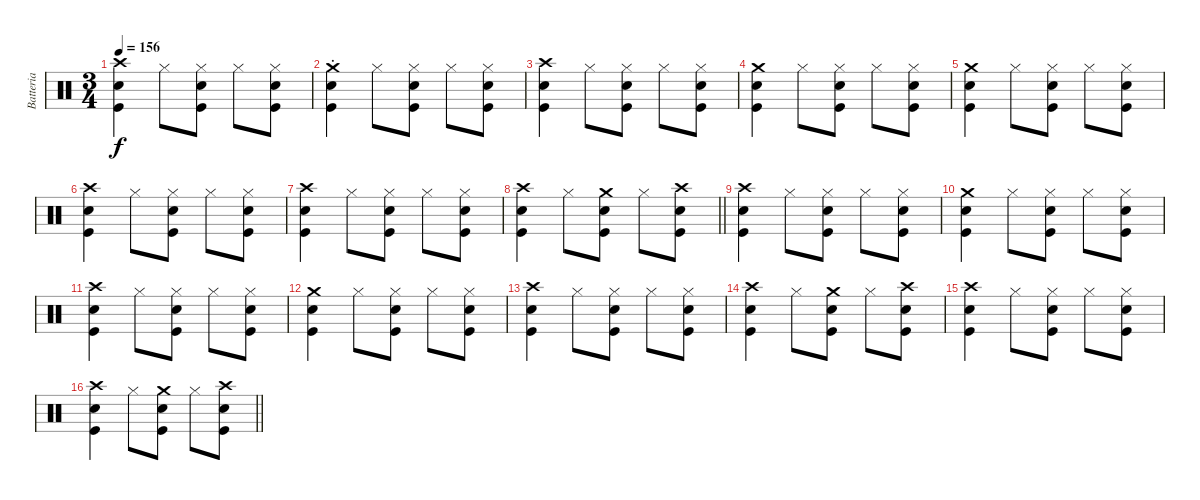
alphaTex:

\track ("Batteria" "Batteria") {instrument percussion}
\staff {score}
\articulation defaults
\ts (3 4)
\tempo 156
\clef neutral
\ks c
("Crash high (hit)" "Electric Snare (hit)" "Kick (hit)").4{dy f} "Hi-Hat (closed)".8 ("Hi-Hat (closed)" "Electric Snare (hit)" "Kick (hit)").8 "Hi-Hat (closed)".8 ("Hi-Hat (closed)" "Electric Snare (hit)" "Kick (hit)").8 |
("Crash medium (hit)"{st} "Electric Snare (hit)"{st} "Kick (hit)"{st}).4 "Hi-Hat (closed)".8 ("Hi-Hat (closed)" "Electric Snare (hit)" "Kick (hit)").8 "Hi-Hat (closed)".8 ("Hi-Hat (closed)" "Electric Snare (hit)" "Kick (hit)").8 |
("Crash high (hit)" "Electric Snare (hit)" "Kick (hit)").4 "Hi-Hat (closed)".8 ("Hi-Hat (closed)" "Electric Snare (hit)" "Kick (hit)").8 "Hi-Hat (closed)".8 ("Hi-Hat (closed)" "Electric Snare (hit)" "Kick (hit)").8 |
("Crash medium (hit)" "Electric Snare (hit)" "Kick (hit)").4 "Hi-Hat (closed)".8 ("Hi-Hat (closed)" "Electric Snare (hit)" "Kick (hit)").8 "Hi-Hat (closed)".8 ("Hi-Hat (closed)" "Electric Snare (hit)" "Kick (hit)").8 |
("Crash medium (hit)" "Electric Snare (hit)" "Kick (hit)").4 "Hi-Hat (closed)".8 ("Hi-Hat (closed)" "Electric Snare (hit)" "Kick (hit)").8 "Hi-Hat (closed)".8 ("Hi-Hat (closed)" "Electric Snare (hit)" "Kick (hit)").8 |
("Crash high (hit)" "Electric Snare (hit)" "Kick (hit)").4 "Hi-Hat (closed)".8 ("Hi-Hat (closed)" "Electric Snare (hit)" "Kick (hit)").8 "Hi-Hat (closed)".8 ("Hi-Hat (closed)" "Electric Snare (hit)" "Kick (hit)").8 |
("Crash high (hit)" "Electric Snare (hit)" "Kick (hit)").4 "Hi-Hat (closed)".8 ("Hi-Hat (closed)" "Electric Snare (hit)" "Kick (hit)").8 "Hi-Hat (closed)".8 ("Hi-Hat (closed)" "Electric Snare (hit)" "Kick (hit)").8 |
\barLineRight lightlight
("Crash high (hit)" "Electric Snare (hit)" "Kick (hit)").4 "Hi-Hat (closed)".8 ("Crash medium (hit)" "Electric Snare (hit)" "Kick (hit)").8 "Hi-Hat (closed)".8 ("Crash high (hit)" "Electric Snare (hit)" "Kick (hit)").8 |
\section ("" "")
("Crash high (hit)" "Electric Snare (hit)" "Kick (hit)").4 "Hi-Hat (closed)".8 ("Hi-Hat (closed)" "Electric Snare (hit)" "Kick (hit)").8 "Hi-Hat (closed)".8 ("Hi-Hat (closed)" "Electric Snare (hit)" "Kick (hit)").8 |
("Crash medium (hit)" "Electric Snare (hit)" "Kick (hit)").4 "Hi-Hat (closed)".8 ("Hi-Hat (closed)" "Electric Snare (hit)" "Kick (hit)").8 "Hi-Hat (closed)".8 ("Hi-Hat (closed)" "Electric Snare (hit)" "Kick (hit)").8 |
("Crash high (hit)" "Electric Snare (hit)" "Kick (hit)").4 "Hi-Hat (closed)".8 ("Hi-Hat (closed)" "Electric Snare (hit)" "Kick (hit)").8 "Hi-Hat (closed)".8 ("Hi-Hat (closed)" "Electric Snare (hit)" "Kick (hit)").8 |
("Crash medium (hit)" "Electric Snare (hit)" "Kick (hit)").4 "Hi-Hat (closed)".8 ("Hi-Hat (closed)" "Electric Snare (hit)" "Kick (hit)").8 "Hi-Hat (closed)".8 ("Hi-Hat (closed)" "Electric Snare (hit)" "Kick (hit)").8 |
("Crash high (hit)" "Electric Snare (hit)" "Kick (hit)").4 "Hi-Hat (closed)".8 ("Hi-Hat (closed)" "Electric Snare (hit)" "Kick (hit)").8 "Hi-Hat (closed)".8 ("Hi-Hat (closed)" "Electric Snare (hit)" "Kick (hit)").8 |
("Crash high (hit)" "Electric Snare (hit)" "Kick (hit)").4 "Hi-Hat (closed)".8 ("Crash medium (hit)" "Electric Snare (hit)" "Kick (hit)").8 "Hi-Hat (closed)".8 ("Crash high (hit)" "Electric Snare (hit)" "Kick (hit)").8 |
("Crash high (hit)" "Electric Snare (hit)" "Kick (hit)").4 "Hi-Hat (closed)".8 ("Hi-Hat (closed)" "Electric Snare (hit)" "Kick (hit)").8 "Hi-Hat (closed)".8 ("Hi-Hat (closed)" "Electric Snare (hit)" "Kick (hit)").8 |
\barLineRight lightlight
("Crash high (hit)" "Electric Snare (hit)" "Kick (hit)").4 "Hi-Hat (closed)".8 ("Crash medium (hit)" "Electric Snare (hit)" "Kick (hit)").8 "Hi-Hat (closed)".8 ("Crash high (hit)" "Electric Snare (hit)" "Kick (hit)").8
